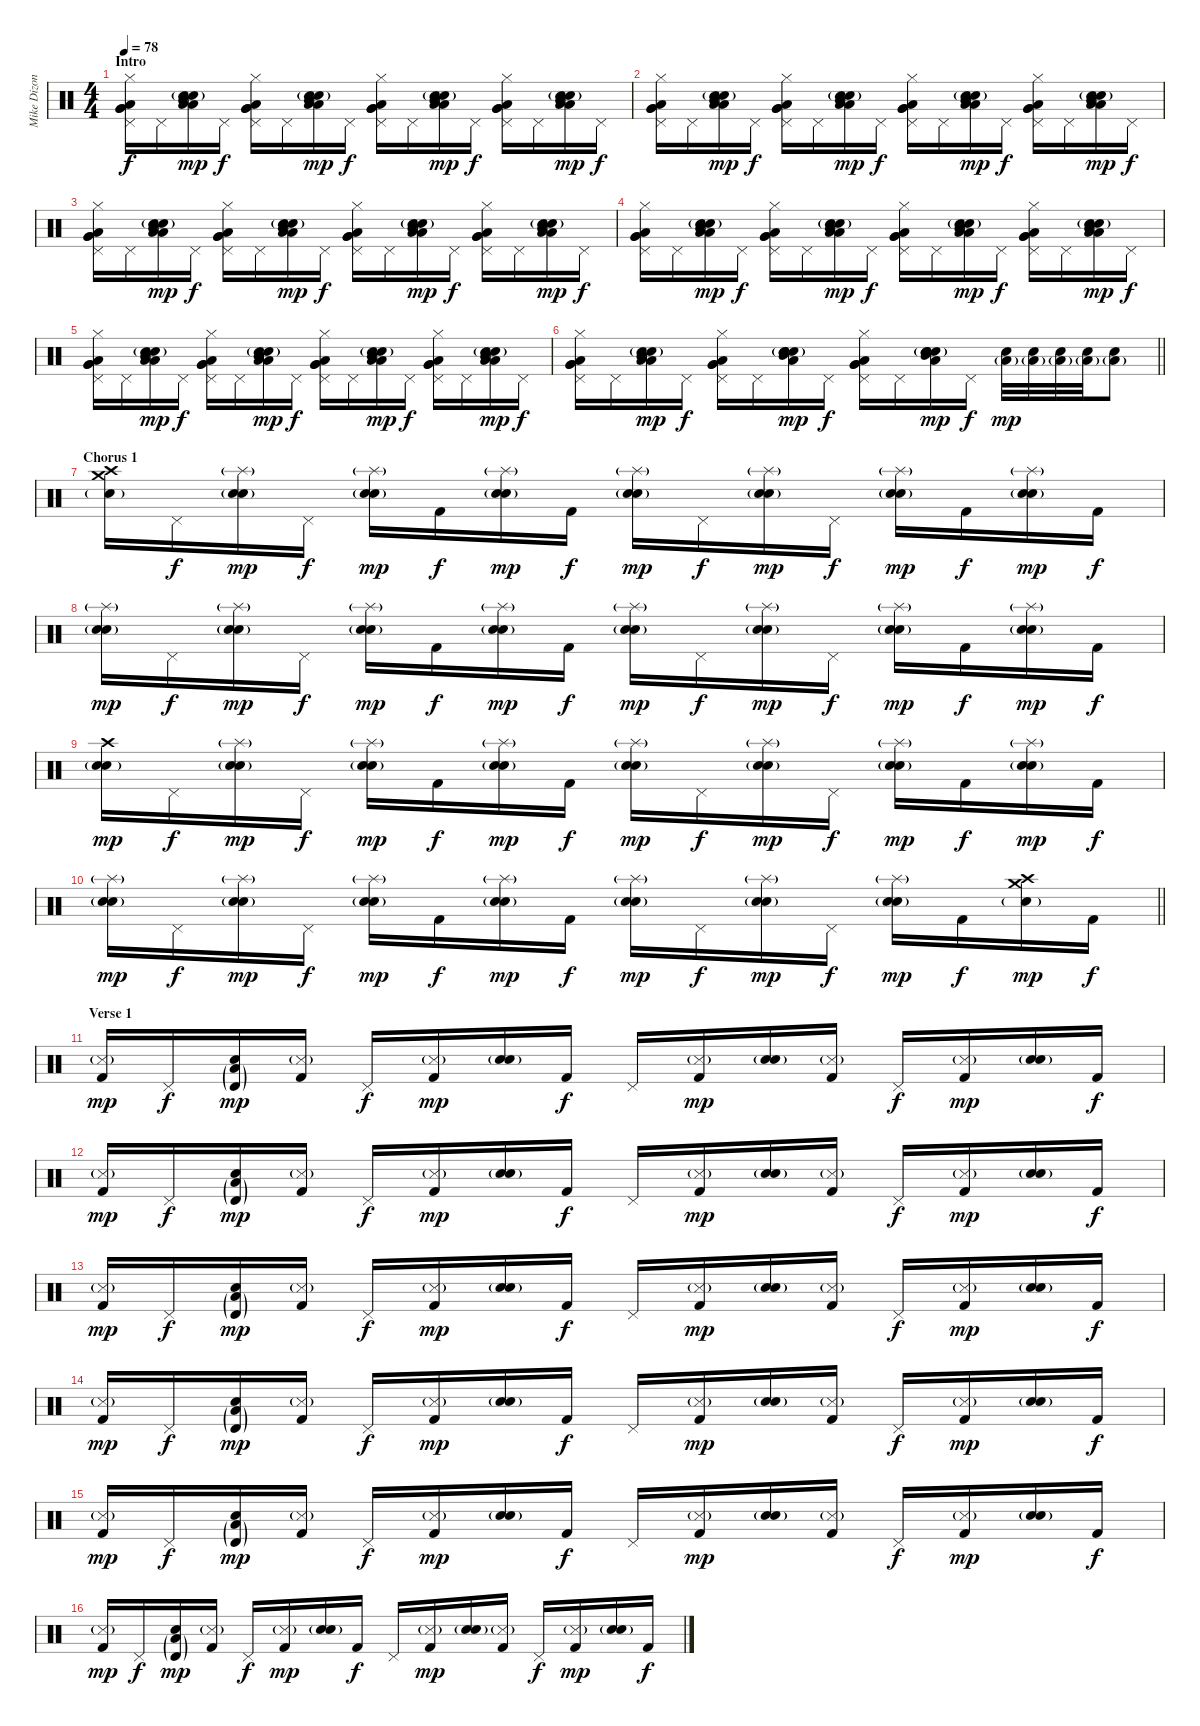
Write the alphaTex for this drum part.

\track ("Mike Dizon (Drums)" "Mike Dizon") {instrument percussion}
\staff {score}
\articulation defaults
\ts (4 4)
\section ("" "Intro")
\tempo 78
\clef neutral
\ks c
("Pedal Hi-Hat (hit)" "Very Low Tom (hit)" "Very Low Tom (hit)" "Low Floor Tom (hit)" "Hi-Hat (closed)").16{dy f} "Pedal Hi-Hat (hit)".16 ("Electric Snare (hit)" "Low Tom (hit)" "Low Tom (hit)" "Mid Tom (hit)" "Snare (hit) 2"{g}).16{dy mp} "Pedal Hi-Hat (hit)".16{dy f} ("Pedal Hi-Hat (hit)" "Very Low Tom (hit)" "Very Low Tom (hit)" "Low Floor Tom (hit)" "Hi-Hat (closed)").16 "Pedal Hi-Hat (hit)".16 ("Electric Snare (hit)" "Low Tom (hit)" "Low Tom (hit)" "Mid Tom (hit)" "Snare (hit) 2"{g}).16{dy mp} "Pedal Hi-Hat (hit)".16{dy f} ("Pedal Hi-Hat (hit)" "Very Low Tom (hit)" "Very Low Tom (hit)" "Low Floor Tom (hit)" "Hi-Hat (closed)").16 "Pedal Hi-Hat (hit)".16 ("Electric Snare (hit)" "Low Tom (hit)" "Low Tom (hit)" "Mid Tom (hit)" "Snare (hit) 2"{g}).16{dy mp} "Pedal Hi-Hat (hit)".16{dy f} ("Pedal Hi-Hat (hit)" "Very Low Tom (hit)" "Very Low Tom (hit)" "Low Floor Tom (hit)" "Hi-Hat (closed)").16 "Pedal Hi-Hat (hit)".16 ("Electric Snare (hit)" "Low Tom (hit)" "Low Tom (hit)" "Mid Tom (hit)" "Snare (hit) 2"{g}).16{dy mp} "Pedal Hi-Hat (hit)".16{dy f} |
("Pedal Hi-Hat (hit)" "Very Low Tom (hit)" "Very Low Tom (hit)" "Low Floor Tom (hit)" "Hi-Hat (closed)").16 "Pedal Hi-Hat (hit)".16 ("Electric Snare (hit)" "Low Tom (hit)" "Low Tom (hit)" "Mid Tom (hit)" "Snare (hit) 2"{g}).16{dy mp} "Pedal Hi-Hat (hit)".16{dy f} ("Pedal Hi-Hat (hit)" "Very Low Tom (hit)" "Very Low Tom (hit)" "Low Floor Tom (hit)" "Hi-Hat (closed)").16 "Pedal Hi-Hat (hit)".16 ("Electric Snare (hit)" "Low Tom (hit)" "Low Tom (hit)" "Mid Tom (hit)" "Snare (hit) 2"{g}).16{dy mp} "Pedal Hi-Hat (hit)".16{dy f} ("Pedal Hi-Hat (hit)" "Very Low Tom (hit)" "Very Low Tom (hit)" "Low Floor Tom (hit)" "Hi-Hat (closed)").16 "Pedal Hi-Hat (hit)".16 ("Electric Snare (hit)" "Low Tom (hit)" "Low Tom (hit)" "Mid Tom (hit)" "Snare (hit) 2"{g}).16{dy mp} "Pedal Hi-Hat (hit)".16{dy f} ("Pedal Hi-Hat (hit)" "Very Low Tom (hit)" "Very Low Tom (hit)" "Low Floor Tom (hit)" "Hi-Hat (closed)").16 "Pedal Hi-Hat (hit)".16 ("Electric Snare (hit)" "Low Tom (hit)" "Low Tom (hit)" "Mid Tom (hit)" "Snare (hit) 2"{g}).16{dy mp} "Pedal Hi-Hat (hit)".16{dy f} |
("Pedal Hi-Hat (hit)" "Very Low Tom (hit)" "Very Low Tom (hit)" "Low Floor Tom (hit)" "Hi-Hat (closed)").16 "Pedal Hi-Hat (hit)".16 ("Electric Snare (hit)" "Low Tom (hit)" "Low Tom (hit)" "Mid Tom (hit)" "Snare (hit) 2"{g}).16{dy mp} "Pedal Hi-Hat (hit)".16{dy f} ("Pedal Hi-Hat (hit)" "Very Low Tom (hit)" "Very Low Tom (hit)" "Low Floor Tom (hit)" "Hi-Hat (closed)").16 "Pedal Hi-Hat (hit)".16 ("Electric Snare (hit)" "Low Tom (hit)" "Low Tom (hit)" "Mid Tom (hit)" "Snare (hit) 2"{g}).16{dy mp} "Pedal Hi-Hat (hit)".16{dy f} ("Pedal Hi-Hat (hit)" "Very Low Tom (hit)" "Very Low Tom (hit)" "Low Floor Tom (hit)" "Hi-Hat (closed)").16 "Pedal Hi-Hat (hit)".16 ("Electric Snare (hit)" "Low Tom (hit)" "Low Tom (hit)" "Mid Tom (hit)" "Snare (hit) 2"{g}).16{dy mp} "Pedal Hi-Hat (hit)".16{dy f} ("Pedal Hi-Hat (hit)" "Very Low Tom (hit)" "Very Low Tom (hit)" "Low Floor Tom (hit)" "Hi-Hat (closed)").16 "Pedal Hi-Hat (hit)".16 ("Electric Snare (hit)" "Low Tom (hit)" "Low Tom (hit)" "Mid Tom (hit)" "Snare (hit) 2"{g}).16{dy mp} "Pedal Hi-Hat (hit)".16{dy f} |
("Pedal Hi-Hat (hit)" "Very Low Tom (hit)" "Very Low Tom (hit)" "Low Floor Tom (hit)" "Hi-Hat (closed)").16 "Pedal Hi-Hat (hit)".16 ("Electric Snare (hit)" "Low Tom (hit)" "Low Tom (hit)" "Mid Tom (hit)" "Snare (hit) 2"{g}).16{dy mp} "Pedal Hi-Hat (hit)".16{dy f} ("Pedal Hi-Hat (hit)" "Very Low Tom (hit)" "Very Low Tom (hit)" "Low Floor Tom (hit)" "Hi-Hat (closed)").16 "Pedal Hi-Hat (hit)".16 ("Electric Snare (hit)" "Low Tom (hit)" "Low Tom (hit)" "Mid Tom (hit)" "Snare (hit) 2"{g}).16{dy mp} "Pedal Hi-Hat (hit)".16{dy f} ("Pedal Hi-Hat (hit)" "Very Low Tom (hit)" "Very Low Tom (hit)" "Low Floor Tom (hit)" "Hi-Hat (closed)").16 "Pedal Hi-Hat (hit)".16 ("Electric Snare (hit)" "Low Tom (hit)" "Low Tom (hit)" "Mid Tom (hit)" "Snare (hit) 2"{g}).16{dy mp} "Pedal Hi-Hat (hit)".16{dy f} ("Pedal Hi-Hat (hit)" "Very Low Tom (hit)" "Very Low Tom (hit)" "Low Floor Tom (hit)" "Hi-Hat (closed)").16 "Pedal Hi-Hat (hit)".16 ("Electric Snare (hit)" "Low Tom (hit)" "Low Tom (hit)" "Mid Tom (hit)" "Snare (hit) 2"{g}).16{dy mp} "Pedal Hi-Hat (hit)".16{dy f} |
("Pedal Hi-Hat (hit)" "Very Low Tom (hit)" "Very Low Tom (hit)" "Low Floor Tom (hit)" "Hi-Hat (closed)").16 "Pedal Hi-Hat (hit)".16 ("Electric Snare (hit)" "Low Tom (hit)" "Low Tom (hit)" "Mid Tom (hit)" "Snare (hit) 2"{g}).16{dy mp} "Pedal Hi-Hat (hit)".16{dy f} ("Pedal Hi-Hat (hit)" "Very Low Tom (hit)" "Very Low Tom (hit)" "Low Floor Tom (hit)" "Hi-Hat (closed)").16 "Pedal Hi-Hat (hit)".16 ("Electric Snare (hit)" "Low Tom (hit)" "Low Tom (hit)" "Mid Tom (hit)" "Snare (hit) 2"{g}).16{dy mp} "Pedal Hi-Hat (hit)".16{dy f} ("Pedal Hi-Hat (hit)" "Very Low Tom (hit)" "Very Low Tom (hit)" "Low Floor Tom (hit)" "Hi-Hat (closed)").16 "Pedal Hi-Hat (hit)".16 ("Electric Snare (hit)" "Low Tom (hit)" "Low Tom (hit)" "Mid Tom (hit)" "Snare (hit) 2"{g}).16{dy mp} "Pedal Hi-Hat (hit)".16{dy f} ("Pedal Hi-Hat (hit)" "Very Low Tom (hit)" "Very Low Tom (hit)" "Low Floor Tom (hit)" "Hi-Hat (closed)").16 "Pedal Hi-Hat (hit)".16 ("Electric Snare (hit)" "Low Tom (hit)" "Low Tom (hit)" "Mid Tom (hit)" "Snare (hit) 2"{g}).16{dy mp} "Pedal Hi-Hat (hit)".16{dy f} |
\barLineRight lightlight
("Pedal Hi-Hat (hit)" "Very Low Tom (hit)" "Very Low Tom (hit)" "Low Floor Tom (hit)" "Hi-Hat (closed)").16 "Pedal Hi-Hat (hit)".16 ("Electric Snare (hit)" "Low Tom (hit)" "Low Tom (hit)" "Mid Tom (hit)" "Snare (hit) 2"{g}).16{dy mp} "Pedal Hi-Hat (hit)".16{dy f} ("Pedal Hi-Hat (hit)" "Very Low Tom (hit)" "Very Low Tom (hit)" "Low Floor Tom (hit)" "Hi-Hat (closed)").16 "Pedal Hi-Hat (hit)".16 ("Electric Snare (hit)" "Snare (hit) 2" "Low Tom (hit)" "Mid Tom (hit)" "Snare (hit) 2"{g}).16{dy mp} "Pedal Hi-Hat (hit)".16{dy f} ("Pedal Hi-Hat (hit)" "Very Low Tom (hit)" "Very Low Tom (hit)" "Low Floor Tom (hit)" "Hi-Hat (closed)").16 "Pedal Hi-Hat (hit)".16 ("Electric Snare (hit)" "Snare (hit) 2" "Low Tom (hit)" "Mid Tom (hit)" "Snare (hit) 2"{g}).16{dy mp} "Pedal Hi-Hat (hit)".16{dy f} ("Electric Snare (hit)" "Low Floor Tom (hit)"{g}).32{dy mp} ("Electric Snare (hit)" "Low Floor Tom (hit)"{g}).32 ("Electric Snare (hit)" "Low Floor Tom (hit)"{g}).32 ("Electric Snare (hit)" "Low Floor Tom (hit)"{g}).32 ("Electric Snare (hit)" "Low Floor Tom (hit)"{g}).8 |
\section ("" "Chorus 1")
("Crash high (hit)" "Crash medium (hit)" "Electric Snare (hit)"{g}).16 "Pedal Hi-Hat (hit)".16{dy f} ("Electric Snare (hit)" "Snare (hit) 2"{g} "Splash (hit)"{g}).16{dy mp} "Pedal Hi-Hat (hit)".16{dy f} ("Electric Snare (hit)" "Snare (hit) 2"{g} "Splash (hit)"{g}).16{dy mp} "Kick (hit) 2".16{dy f} ("Electric Snare (hit)" "Snare (hit) 2"{g} "Splash (hit)"{g}).16{dy mp} "Kick (hit) 2".16{dy f} ("Electric Snare (hit)" "Snare (hit) 2"{g} "Splash (hit)"{g}).16{dy mp} "Pedal Hi-Hat (hit)".16{dy f} ("Electric Snare (hit)" "Snare (hit) 2"{g} "Splash (hit)"{g}).16{dy mp} "Pedal Hi-Hat (hit)".16{dy f} ("Electric Snare (hit)" "Snare (hit) 2"{g} "Splash (hit)"{g}).16{dy mp} "Kick (hit) 2".16{dy f} ("Electric Snare (hit)" "Snare (hit) 2"{g} "Splash (hit)"{g}).16{dy mp} "Kick (hit) 2".16{dy f} |
("Electric Snare (hit)" "Snare (hit) 2"{g} "Splash (hit)"{g}).16{dy mp} "Pedal Hi-Hat (hit)".16{dy f} ("Electric Snare (hit)" "Snare (hit) 2"{g} "Splash (hit)"{g}).16{dy mp} "Pedal Hi-Hat (hit)".16{dy f} ("Electric Snare (hit)" "Snare (hit) 2"{g} "Splash (hit)"{g}).16{dy mp} "Kick (hit) 2".16{dy f} ("Electric Snare (hit)" "Snare (hit) 2"{g} "Splash (hit)"{g}).16{dy mp} "Kick (hit) 2".16{dy f} ("Electric Snare (hit)" "Snare (hit) 2"{g} "Splash (hit)"{g}).16{dy mp} "Pedal Hi-Hat (hit)".16{dy f} ("Electric Snare (hit)" "Snare (hit) 2"{g} "Splash (hit)"{g}).16{dy mp} "Pedal Hi-Hat (hit)".16{dy f} ("Electric Snare (hit)" "Snare (hit) 2"{g} "Splash (hit)"{g}).16{dy mp} "Kick (hit) 2".16{dy f} ("Electric Snare (hit)" "Snare (hit) 2"{g} "Splash (hit)"{g}).16{dy mp} "Kick (hit) 2".16{dy f} |
("Electric Snare (hit)" "Snare (hit) 2"{g} "Crash high (hit)").16{dy mp} "Pedal Hi-Hat (hit)".16{dy f} ("Electric Snare (hit)" "Snare (hit) 2"{g} "Splash (hit)"{g}).16{dy mp} "Pedal Hi-Hat (hit)".16{dy f} ("Electric Snare (hit)" "Snare (hit) 2"{g} "Splash (hit)"{g}).16{dy mp} "Kick (hit) 2".16{dy f} ("Electric Snare (hit)" "Snare (hit) 2"{g} "Splash (hit)"{g}).16{dy mp} "Kick (hit) 2".16{dy f} ("Electric Snare (hit)" "Snare (hit) 2"{g} "Splash (hit)"{g}).16{dy mp} "Pedal Hi-Hat (hit)".16{dy f} ("Electric Snare (hit)" "Snare (hit) 2"{g} "Splash (hit)"{g}).16{dy mp} "Pedal Hi-Hat (hit)".16{dy f} ("Electric Snare (hit)" "Snare (hit) 2"{g} "Splash (hit)"{g}).16{dy mp} "Kick (hit) 2".16{dy f} ("Electric Snare (hit)" "Snare (hit) 2"{g} "Splash (hit)"{g}).16{dy mp} "Kick (hit) 2".16{dy f} |
\barLineRight lightlight
("Electric Snare (hit)" "Snare (hit) 2"{g} "Splash (hit)"{g}).16{dy mp} "Pedal Hi-Hat (hit)".16{dy f} ("Electric Snare (hit)" "Snare (hit) 2"{g} "Splash (hit)"{g}).16{dy mp} "Pedal Hi-Hat (hit)".16{dy f} ("Electric Snare (hit)" "Snare (hit) 2"{g} "Splash (hit)"{g}).16{dy mp} "Kick (hit) 2".16{dy f} ("Electric Snare (hit)" "Snare (hit) 2"{g} "Splash (hit)"{g}).16{dy mp} "Kick (hit) 2".16{dy f} ("Electric Snare (hit)" "Snare (hit) 2"{g} "Splash (hit)"{g}).16{dy mp} "Pedal Hi-Hat (hit)".16{dy f} ("Electric Snare (hit)" "Snare (hit) 2"{g} "Splash (hit)"{g}).16{dy mp} "Pedal Hi-Hat (hit)".16{dy f} ("Electric Snare (hit)" "Snare (hit) 2"{g} "Splash (hit)"{g}).16{dy mp} "Kick (hit) 2".16{dy f} ("Crash high (hit)" "Crash medium (hit)" "Electric Snare (hit)"{g}).16{dy mp} "Kick (hit) 2".16{dy f} |
\section ("" "Verse 1")
("Kick (hit) 2" "Snare (side stick) 3"{g}).16{dy mp} "Pedal Hi-Hat (hit)".16{dy f} ("Electric Snare (hit)" "Timbale high (hit)"{g} "Low Tom (hit)"{g}).16{dy mp} ("Kick (hit) 2" "Snare (side stick) 3"{g}).16 "Pedal Hi-Hat (hit)".16{dy f} ("Kick (hit) 2" "Snare (side stick) 3"{g}).16{dy mp} ("Electric Snare (hit)" "Snare (hit) 2"{g}).16 "Kick (hit) 2".16{dy f} "Pedal Hi-Hat (hit)".16 ("Kick (hit) 2" "Snare (side stick) 3"{g}).16{dy mp} ("Electric Snare (hit)" "Snare (hit) 2"{g}).16 ("Kick (hit) 2" "Snare (side stick) 3"{g}).16 "Pedal Hi-Hat (hit)".16{dy f} ("Kick (hit) 2" "Snare (side stick) 3"{g}).16{dy mp} ("Electric Snare (hit)" "Snare (hit) 2"{g}).16 "Kick (hit) 2".16{dy f} |
("Kick (hit) 2" "Snare (side stick) 3"{g}).16{dy mp} "Pedal Hi-Hat (hit)".16{dy f} ("Electric Snare (hit)" "Timbale high (hit)"{g} "Low Tom (hit)"{g}).16{dy mp} ("Kick (hit) 2" "Snare (side stick) 3"{g}).16 "Pedal Hi-Hat (hit)".16{dy f} ("Kick (hit) 2" "Snare (side stick) 3"{g}).16{dy mp} ("Electric Snare (hit)" "Snare (hit) 2"{g}).16 "Kick (hit) 2".16{dy f} "Pedal Hi-Hat (hit)".16 ("Kick (hit) 2" "Snare (side stick) 3"{g}).16{dy mp} ("Electric Snare (hit)" "Snare (hit) 2"{g}).16 ("Kick (hit) 2" "Snare (side stick) 3"{g}).16 "Pedal Hi-Hat (hit)".16{dy f} ("Kick (hit) 2" "Snare (side stick) 3"{g}).16{dy mp} ("Electric Snare (hit)" "Snare (hit) 2"{g}).16 "Kick (hit) 2".16{dy f} |
("Kick (hit) 2" "Snare (side stick) 3"{g}).16{dy mp} "Pedal Hi-Hat (hit)".16{dy f} ("Electric Snare (hit)" "Timbale high (hit)"{g} "Low Tom (hit)"{g}).16{dy mp} ("Kick (hit) 2" "Snare (side stick) 3"{g}).16 "Pedal Hi-Hat (hit)".16{dy f} ("Kick (hit) 2" "Snare (side stick) 3"{g}).16{dy mp} ("Electric Snare (hit)" "Snare (hit) 2"{g}).16 "Kick (hit) 2".16{dy f} "Pedal Hi-Hat (hit)".16 ("Kick (hit) 2" "Snare (side stick) 3"{g}).16{dy mp} ("Electric Snare (hit)" "Snare (hit) 2"{g}).16 ("Kick (hit) 2" "Snare (side stick) 3"{g}).16 "Pedal Hi-Hat (hit)".16{dy f} ("Kick (hit) 2" "Snare (side stick) 3"{g}).16{dy mp} ("Electric Snare (hit)" "Snare (hit) 2"{g}).16 "Kick (hit) 2".16{dy f} |
("Kick (hit) 2" "Snare (side stick) 3"{g}).16{dy mp} "Pedal Hi-Hat (hit)".16{dy f} ("Electric Snare (hit)" "Timbale high (hit)"{g} "Low Tom (hit)"{g}).16{dy mp} ("Kick (hit) 2" "Snare (side stick) 3"{g}).16 "Pedal Hi-Hat (hit)".16{dy f} ("Kick (hit) 2" "Snare (side stick) 3"{g}).16{dy mp} ("Electric Snare (hit)" "Snare (hit) 2"{g}).16 "Kick (hit) 2".16{dy f} "Pedal Hi-Hat (hit)".16 ("Kick (hit) 2" "Snare (side stick) 3"{g}).16{dy mp} ("Electric Snare (hit)" "Snare (hit) 2"{g}).16 ("Kick (hit) 2" "Snare (side stick) 3"{g}).16 "Pedal Hi-Hat (hit)".16{dy f} ("Kick (hit) 2" "Snare (side stick) 3"{g}).16{dy mp} ("Electric Snare (hit)" "Snare (hit) 2"{g}).16 "Kick (hit) 2".16{dy f} |
("Kick (hit) 2" "Snare (side stick) 3"{g}).16{dy mp} "Pedal Hi-Hat (hit)".16{dy f} ("Electric Snare (hit)" "Timbale high (hit)"{g} "Low Tom (hit)"{g}).16{dy mp} ("Kick (hit) 2" "Snare (side stick) 3"{g}).16 "Pedal Hi-Hat (hit)".16{dy f} ("Kick (hit) 2" "Snare (side stick) 3"{g}).16{dy mp} ("Electric Snare (hit)" "Snare (hit) 2"{g}).16 "Kick (hit) 2".16{dy f} "Pedal Hi-Hat (hit)".16 ("Kick (hit) 2" "Snare (side stick) 3"{g}).16{dy mp} ("Electric Snare (hit)" "Snare (hit) 2"{g}).16 ("Kick (hit) 2" "Snare (side stick) 3"{g}).16 "Pedal Hi-Hat (hit)".16{dy f} ("Kick (hit) 2" "Snare (side stick) 3"{g}).16{dy mp} ("Electric Snare (hit)" "Snare (hit) 2"{g}).16 "Kick (hit) 2".16{dy f} |
("Kick (hit) 2" "Snare (side stick) 3"{g}).16{dy mp} "Pedal Hi-Hat (hit)".16{dy f} ("Electric Snare (hit)" "Timbale high (hit)"{g} "Low Tom (hit)"{g}).16{dy mp} ("Kick (hit) 2" "Snare (side stick) 3"{g}).16 "Pedal Hi-Hat (hit)".16{dy f} ("Kick (hit) 2" "Snare (side stick) 3"{g}).16{dy mp} ("Electric Snare (hit)" "Snare (hit) 2"{g}).16 "Kick (hit) 2".16{dy f} "Pedal Hi-Hat (hit)".16 ("Kick (hit) 2" "Snare (side stick) 3"{g}).16{dy mp} ("Electric Snare (hit)" "Snare (hit) 2"{g}).16 ("Kick (hit) 2" "Snare (side stick) 3"{g}).16 "Pedal Hi-Hat (hit)".16{dy f} ("Kick (hit) 2" "Snare (side stick) 3"{g}).16{dy mp} ("Electric Snare (hit)" "Snare (hit) 2"{g}).16 "Kick (hit) 2".16{dy f}
